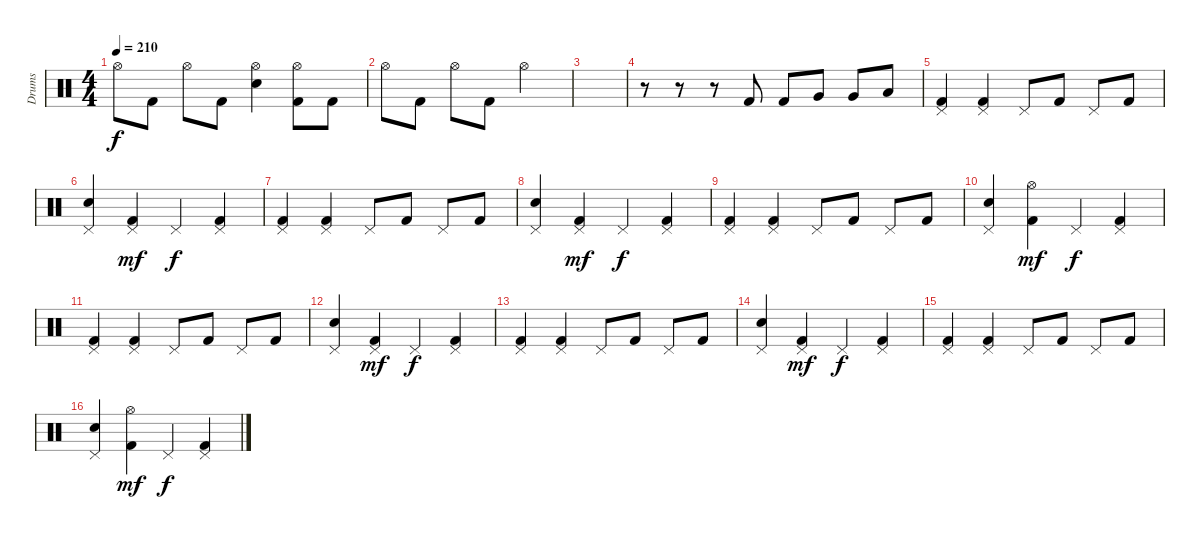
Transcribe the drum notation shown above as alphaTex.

\track ("Drums" "Drums") {instrument percussion}
\staff {score}
\articulation defaults
\ts (4 4)
\tempo 210
\clef neutral
\ks c "Hi-Hat (open)".8{dy f} "Kick (hit) 2".8 "Hi-Hat (open)".8 "Kick (hit) 2".8
("Hi-Hat (open)" "Electric Snare (hit)").4 ("Hi-Hat (open)" "Kick (hit) 2").8 "Kick (hit) 2".8 |
"Hi-Hat (open)".8 "Kick (hit) 2".8 "Hi-Hat (open)".8 "Kick (hit) 2".8 "Hi-Hat (open)".2 |
|
r.8 r.8 r.8 "Kick (hit) 2".8 "Kick (hit) 2".8 "Very Low Tom (hit)".8 "Very Low Tom (hit)".8 "Low Tom (hit)".8 |
("Pedal Hi-Hat (hit)" "Kick (hit) 2").4 ("Pedal Hi-Hat (hit)" "Kick (hit) 2").4 "Pedal Hi-Hat (hit)".8 "Kick (hit) 2".8 "Pedal Hi-Hat (hit)".8 "Kick (hit) 2".8 |
("Pedal Hi-Hat (hit)" "Electric Snare (hit)").4 ("Pedal Hi-Hat (hit)" "Kick (hit) 2").4{dy mf} "Pedal Hi-Hat (hit)".4{dy f} ("Pedal Hi-Hat (hit)" "Kick (hit) 2").4 |
("Pedal Hi-Hat (hit)" "Kick (hit) 2").4 ("Pedal Hi-Hat (hit)" "Kick (hit) 2").4 "Pedal Hi-Hat (hit)".8 "Kick (hit) 2".8 "Pedal Hi-Hat (hit)".8 "Kick (hit) 2".8 |
("Pedal Hi-Hat (hit)" "Electric Snare (hit)").4 ("Pedal Hi-Hat (hit)" "Kick (hit) 2").4{dy mf} "Pedal Hi-Hat (hit)".4{dy f} ("Pedal Hi-Hat (hit)" "Kick (hit) 2").4 |
("Pedal Hi-Hat (hit)" "Kick (hit) 2").4 ("Pedal Hi-Hat (hit)" "Kick (hit) 2").4 "Pedal Hi-Hat (hit)".8 "Kick (hit) 2".8 "Pedal Hi-Hat (hit)".8 "Kick (hit) 2".8 |
("Pedal Hi-Hat (hit)" "Electric Snare (hit)").4 ("Hi-Hat (open)" "Kick (hit) 2").4{dy mf} "Pedal Hi-Hat (hit)".4{dy f} ("Pedal Hi-Hat (hit)" "Kick (hit) 2").4 |
("Pedal Hi-Hat (hit)" "Kick (hit) 2").4 ("Pedal Hi-Hat (hit)" "Kick (hit) 2").4 "Pedal Hi-Hat (hit)".8 "Kick (hit) 2".8 "Pedal Hi-Hat (hit)".8 "Kick (hit) 2".8 |
("Pedal Hi-Hat (hit)" "Electric Snare (hit)").4 ("Pedal Hi-Hat (hit)" "Kick (hit) 2").4{dy mf} "Pedal Hi-Hat (hit)".4{dy f} ("Pedal Hi-Hat (hit)" "Kick (hit) 2").4 |
("Pedal Hi-Hat (hit)" "Kick (hit) 2").4 ("Pedal Hi-Hat (hit)" "Kick (hit) 2").4 "Pedal Hi-Hat (hit)".8 "Kick (hit) 2".8 "Pedal Hi-Hat (hit)".8 "Kick (hit) 2".8 |
("Pedal Hi-Hat (hit)" "Electric Snare (hit)").4 ("Pedal Hi-Hat (hit)" "Kick (hit) 2").4{dy mf} "Pedal Hi-Hat (hit)".4{dy f} ("Pedal Hi-Hat (hit)" "Kick (hit) 2").4 |
("Pedal Hi-Hat (hit)" "Kick (hit) 2").4 ("Pedal Hi-Hat (hit)" "Kick (hit) 2").4 "Pedal Hi-Hat (hit)".8 "Kick (hit) 2".8 "Pedal Hi-Hat (hit)".8 "Kick (hit) 2".8 |
("Pedal Hi-Hat (hit)" "Electric Snare (hit)").4 ("Hi-Hat (open)" "Kick (hit) 2").4{dy mf} "Pedal Hi-Hat (hit)".4{dy f} ("Pedal Hi-Hat (hit)" "Kick (hit) 2").4
